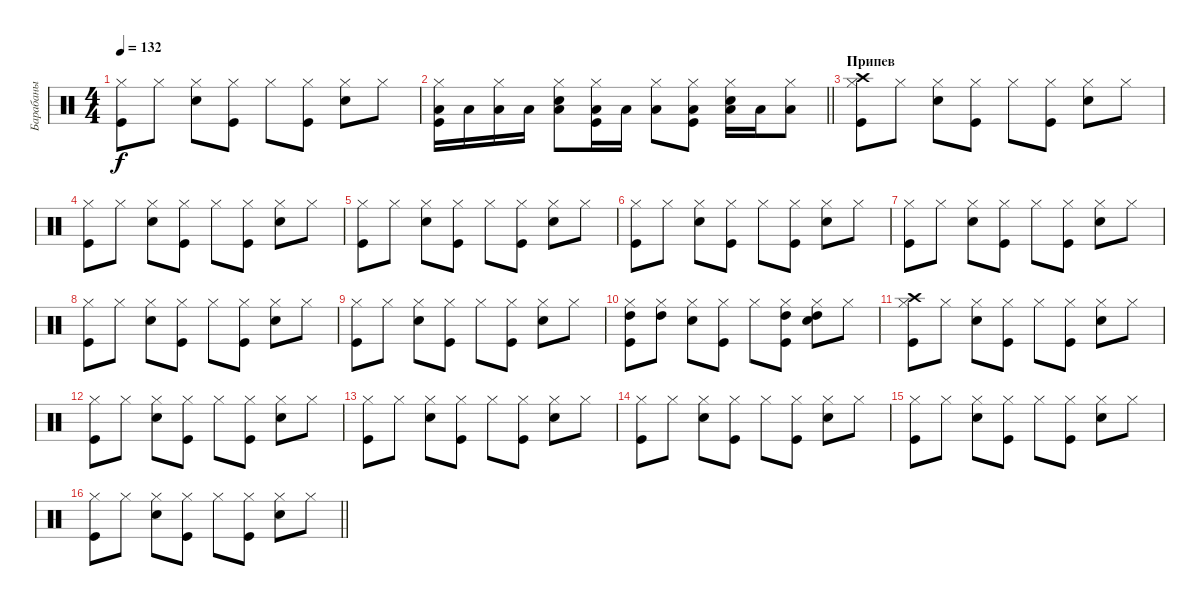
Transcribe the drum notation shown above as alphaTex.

\track ("Барабаны" "Барабаны") {instrument percussion}
\staff {score}
\articulation defaults
\ts (4 4)
\tempo 132
\clef neutral
\ks c
("Kick (hit)" "Hi-Hat (closed)").8{dy f} "Hi-Hat (closed)".8 ("Snare (hit) 2" "Hi-Hat (closed)").8 ("Kick (hit)" "Hi-Hat (closed)").8 "Hi-Hat (closed)".8 ("Kick (hit)" "Hi-Hat (closed)").8 ("Snare (hit) 2" "Hi-Hat (closed)").8 "Hi-Hat (closed)".8 |
\barLineRight lightlight
("Kick (hit)" "Hi-Hat (closed)" "Low Tom (hit)").16 "Low Tom (hit)".16 ("Hi-Hat (closed)" "Low Tom (hit)").16 "Low Tom (hit)".16 ("Snare (hit) 2" "Hi-Hat (closed)" "Low Tom (hit)").8 ("Kick (hit)" "Hi-Hat (closed)" "Low Floor Tom (hit)").16 "Low Floor Tom (hit)".16 ("Hi-Hat (closed)" "Low Floor Tom (hit)").8 ("Kick (hit)" "Hi-Hat (closed)" "Low Tom (hit)").8 ("Snare (hit) 2" "Hi-Hat (closed)" "Low Floor Tom (hit)").16 "Low Tom (hit)".16 ("Hi-Hat (closed)" "Low Floor Tom (hit)").8 |
\section ("" "Припев")
("Kick (hit)" "Hi-Hat (closed)" "Crash high (hit)").8 "Hi-Hat (closed)".8 ("Snare (hit) 2" "Hi-Hat (closed)").8 ("Kick (hit)" "Hi-Hat (closed)").8 "Hi-Hat (closed)".8 ("Kick (hit)" "Hi-Hat (closed)").8 ("Snare (hit) 2" "Hi-Hat (closed)").8 "Hi-Hat (closed)".8 |
("Kick (hit)" "Hi-Hat (closed)").8 "Hi-Hat (closed)".8 ("Snare (hit) 2" "Hi-Hat (closed)").8 ("Kick (hit)" "Hi-Hat (closed)").8 "Hi-Hat (closed)".8 ("Kick (hit)" "Hi-Hat (closed)").8 ("Snare (hit) 2" "Hi-Hat (closed)").8 "Hi-Hat (closed)".8 |
("Kick (hit)" "Hi-Hat (closed)").8 "Hi-Hat (closed)".8 ("Snare (hit) 2" "Hi-Hat (closed)").8 ("Kick (hit)" "Hi-Hat (closed)").8 "Hi-Hat (closed)".8 ("Kick (hit)" "Hi-Hat (closed)").8 ("Snare (hit) 2" "Hi-Hat (closed)").8 "Hi-Hat (closed)".8 |
("Kick (hit)" "Hi-Hat (closed)").8 "Hi-Hat (closed)".8 ("Snare (hit) 2" "Hi-Hat (closed)").8 ("Kick (hit)" "Hi-Hat (closed)").8 "Hi-Hat (closed)".8 ("Kick (hit)" "Hi-Hat (closed)").8 ("Snare (hit) 2" "Hi-Hat (closed)").8 "Hi-Hat (closed)".8 |
("Kick (hit)" "Hi-Hat (closed)").8 "Hi-Hat (closed)".8 ("Snare (hit) 2" "Hi-Hat (closed)").8 ("Kick (hit)" "Hi-Hat (closed)").8 "Hi-Hat (closed)".8 ("Kick (hit)" "Hi-Hat (closed)").8 ("Snare (hit) 2" "Hi-Hat (closed)").8 "Hi-Hat (closed)".8 |
("Kick (hit)" "Hi-Hat (closed)").8 "Hi-Hat (closed)".8 ("Snare (hit) 2" "Hi-Hat (closed)").8 ("Kick (hit)" "Hi-Hat (closed)").8 "Hi-Hat (closed)".8 ("Kick (hit)" "Hi-Hat (closed)").8 ("Snare (hit) 2" "Hi-Hat (closed)").8 "Hi-Hat (closed)".8 |
("Kick (hit)" "Hi-Hat (closed)").8 "Hi-Hat (closed)".8 ("Snare (hit) 2" "Hi-Hat (closed)").8 ("Kick (hit)" "Hi-Hat (closed)").8 "Hi-Hat (closed)".8 ("Kick (hit)" "Hi-Hat (closed)").8 ("Snare (hit) 2" "Hi-Hat (closed)").8 "Hi-Hat (closed)".8 |
("Kick (hit)" "Hi-Hat (closed)" "High Tom (hit)").8 ("Hi-Hat (closed)" "High Tom (hit)").8 ("Snare (hit) 2" "Hi-Hat (closed)").8 ("Kick (hit)" "Hi-Hat (closed)").8 "Hi-Hat (closed)".8 ("Kick (hit)" "Hi-Hat (closed)" "High Tom (hit)").8 ("Snare (hit) 2" "Hi-Hat (closed)" "High Tom (hit)").8 "Hi-Hat (closed)".8 |
("Kick (hit)" "Hi-Hat (closed)" "Crash high (hit)").8 "Hi-Hat (closed)".8 ("Snare (hit) 2" "Hi-Hat (closed)").8 ("Kick (hit)" "Hi-Hat (closed)").8 "Hi-Hat (closed)".8 ("Kick (hit)" "Hi-Hat (closed)").8 ("Snare (hit) 2" "Hi-Hat (closed)").8 "Hi-Hat (closed)".8 |
("Kick (hit)" "Hi-Hat (closed)").8 "Hi-Hat (closed)".8 ("Snare (hit) 2" "Hi-Hat (closed)").8 ("Kick (hit)" "Hi-Hat (closed)").8 "Hi-Hat (closed)".8 ("Kick (hit)" "Hi-Hat (closed)").8 ("Snare (hit) 2" "Hi-Hat (closed)").8 "Hi-Hat (closed)".8 |
("Kick (hit)" "Hi-Hat (closed)").8 "Hi-Hat (closed)".8 ("Snare (hit) 2" "Hi-Hat (closed)").8 ("Kick (hit)" "Hi-Hat (closed)").8 "Hi-Hat (closed)".8 ("Kick (hit)" "Hi-Hat (closed)").8 ("Snare (hit) 2" "Hi-Hat (closed)").8 "Hi-Hat (closed)".8 |
("Kick (hit)" "Hi-Hat (closed)").8 "Hi-Hat (closed)".8 ("Snare (hit) 2" "Hi-Hat (closed)").8 ("Kick (hit)" "Hi-Hat (closed)").8 "Hi-Hat (closed)".8 ("Kick (hit)" "Hi-Hat (closed)").8 ("Snare (hit) 2" "Hi-Hat (closed)").8 "Hi-Hat (closed)".8 |
("Kick (hit)" "Hi-Hat (closed)").8 "Hi-Hat (closed)".8 ("Snare (hit) 2" "Hi-Hat (closed)").8 ("Kick (hit)" "Hi-Hat (closed)").8 "Hi-Hat (closed)".8 ("Kick (hit)" "Hi-Hat (closed)").8 ("Snare (hit) 2" "Hi-Hat (closed)").8 "Hi-Hat (closed)".8 |
\barLineRight lightlight
("Kick (hit)" "Hi-Hat (closed)").8 "Hi-Hat (closed)".8 ("Snare (hit) 2" "Hi-Hat (closed)").8 ("Kick (hit)" "Hi-Hat (closed)").8 "Hi-Hat (closed)".8 ("Kick (hit)" "Hi-Hat (closed)").8 ("Snare (hit) 2" "Hi-Hat (closed)").8 "Hi-Hat (closed)".8
